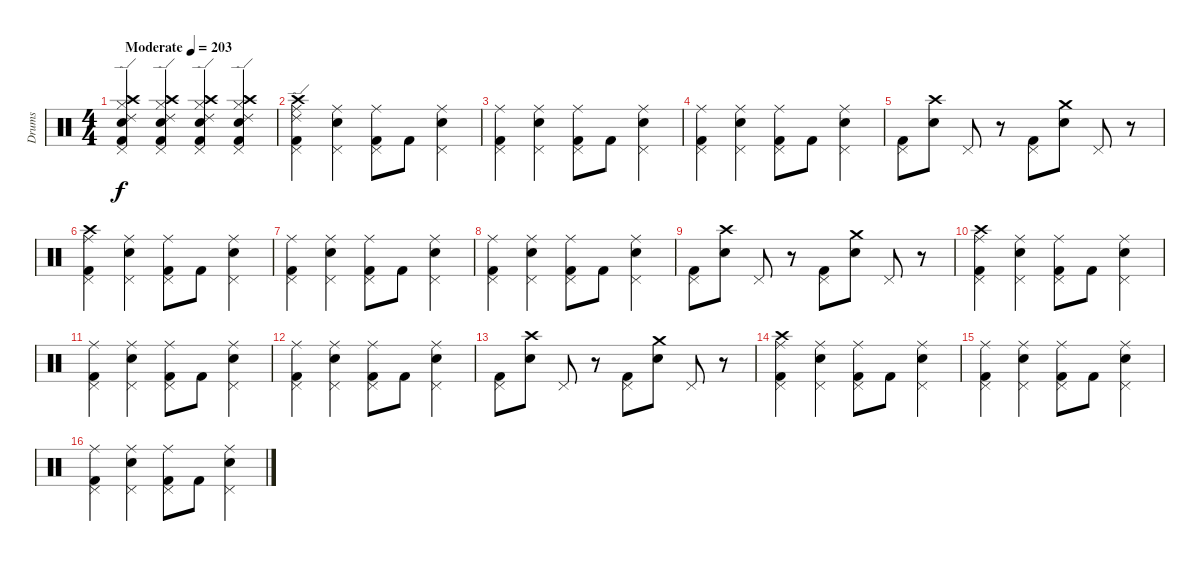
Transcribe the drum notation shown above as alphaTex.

\track ("Drums" "Drums") {instrument percussion}
\staff {score}
\articulation defaults
\ts (4 4)
\tempo (203 "Moderate")
\clef neutral
\ks c
("Kick (hit) 2" "Snare (hit) 2" "Crash high (hit)" "Ride (edge) 2" "Hi-Hat (closed)" "Pedal Hi-Hat (hit)").4{dy f} ("Kick (hit) 2" "Snare (hit) 2" "Crash high (hit)" "Ride (edge) 2" "Hi-Hat (closed)" "Pedal Hi-Hat (hit)").4 ("Kick (hit) 2" "Snare (hit) 2" "Crash high (hit)" "Ride (edge) 2" "Hi-Hat (closed)" "Pedal Hi-Hat (hit)").4 ("Kick (hit) 2" "Snare (hit) 2" "Crash high (hit)" "Ride (edge) 2" "Hi-Hat (closed)" "Pedal Hi-Hat (hit)").4 |
("Ride (edge) 2" "Crash high (hit)" "Pedal Hi-Hat (hit)" "Ride (middle)" "Kick (hit) 2").4 ("Pedal Hi-Hat (hit)" "Ride (middle)" "Snare (hit) 2").4 ("Pedal Hi-Hat (hit)" "Ride (middle)" "Kick (hit) 2").8 "Kick (hit) 2".8 ("Pedal Hi-Hat (hit)" "Ride (middle)" "Snare (hit) 2").4 |
("Pedal Hi-Hat (hit)" "Ride (middle)" "Kick (hit) 2").4 ("Pedal Hi-Hat (hit)" "Ride (middle)" "Snare (hit) 2").4 ("Pedal Hi-Hat (hit)" "Ride (middle)" "Kick (hit) 2").8 "Kick (hit) 2".8 ("Pedal Hi-Hat (hit)" "Ride (middle)" "Snare (hit) 2").4 |
("Pedal Hi-Hat (hit)" "Ride (middle)" "Kick (hit) 2").4 ("Pedal Hi-Hat (hit)" "Ride (middle)" "Snare (hit) 2").4 ("Pedal Hi-Hat (hit)" "Ride (middle)" "Kick (hit) 2").8 "Kick (hit) 2".8 ("Pedal Hi-Hat (hit)" "Ride (middle)" "Snare (hit) 2").4 |
("Pedal Hi-Hat (hit)" "Kick (hit) 2").8 ("Crash high (hit)" "Snare (hit) 2").8 "Pedal Hi-Hat (hit)".8 r.8 ("Pedal Hi-Hat (hit)" "Kick (hit) 2").8 ("Snare (hit) 2" "Crash medium (hit)").8 "Pedal Hi-Hat (hit)".8 r.8 |
("Crash high (hit)" "Ride (middle)" "Pedal Hi-Hat (hit)" "Kick (hit) 2").4 ("Ride (middle)" "Pedal Hi-Hat (hit)" "Snare (hit) 2").4 ("Ride (middle)" "Pedal Hi-Hat (hit)" "Kick (hit) 2").8 "Kick (hit) 2".8 ("Ride (middle)" "Pedal Hi-Hat (hit)" "Snare (hit) 2").4 |
("Ride (middle)" "Pedal Hi-Hat (hit)" "Kick (hit) 2").4 ("Ride (middle)" "Pedal Hi-Hat (hit)" "Snare (hit) 2").4 ("Ride (middle)" "Pedal Hi-Hat (hit)" "Kick (hit) 2").8 "Kick (hit) 2".8 ("Ride (middle)" "Pedal Hi-Hat (hit)" "Snare (hit) 2").4 |
("Ride (middle)" "Pedal Hi-Hat (hit)" "Kick (hit) 2").4 ("Ride (middle)" "Pedal Hi-Hat (hit)" "Snare (hit) 2").4 ("Ride (middle)" "Pedal Hi-Hat (hit)" "Kick (hit) 2").8 "Kick (hit) 2".8 ("Ride (middle)" "Pedal Hi-Hat (hit)" "Snare (hit) 2").4 |
("Pedal Hi-Hat (hit)" "Kick (hit) 2").8 ("Crash high (hit)" "Snare (hit) 2").8 "Pedal Hi-Hat (hit)".8 r.8 ("Pedal Hi-Hat (hit)" "Kick (hit) 2").8 ("Crash medium (hit)" "Snare (hit) 2").8 "Pedal Hi-Hat (hit)".8 r.8 |
("Crash high (hit)" "Ride (middle)" "Pedal Hi-Hat (hit)" "Kick (hit) 2").4 ("Ride (middle)" "Pedal Hi-Hat (hit)" "Snare (hit) 2").4 ("Ride (middle)" "Pedal Hi-Hat (hit)" "Kick (hit) 2").8 "Kick (hit) 2".8 ("Ride (middle)" "Pedal Hi-Hat (hit)" "Snare (hit) 2").4 |
("Ride (middle)" "Pedal Hi-Hat (hit)" "Kick (hit) 2").4 ("Ride (middle)" "Pedal Hi-Hat (hit)" "Snare (hit) 2").4 ("Ride (middle)" "Pedal Hi-Hat (hit)" "Kick (hit) 2").8 "Kick (hit) 2".8 ("Ride (middle)" "Pedal Hi-Hat (hit)" "Snare (hit) 2").4 |
("Ride (middle)" "Pedal Hi-Hat (hit)" "Kick (hit) 2").4 ("Ride (middle)" "Pedal Hi-Hat (hit)" "Snare (hit) 2").4 ("Ride (middle)" "Pedal Hi-Hat (hit)" "Kick (hit) 2").8 "Kick (hit) 2".8 ("Ride (middle)" "Pedal Hi-Hat (hit)" "Snare (hit) 2").4 |
("Pedal Hi-Hat (hit)" "Kick (hit) 2").8 ("Crash high (hit)" "Snare (hit) 2").8 "Pedal Hi-Hat (hit)".8 r.8 ("Pedal Hi-Hat (hit)" "Kick (hit) 2").8 ("Crash medium (hit)" "Snare (hit) 2").8 "Pedal Hi-Hat (hit)".8 r.8 |
("Ride (middle)" "Pedal Hi-Hat (hit)" "Crash high (hit)" "Kick (hit) 2").4 ("Ride (middle)" "Pedal Hi-Hat (hit)" "Snare (hit) 2").4 ("Ride (middle)" "Pedal Hi-Hat (hit)" "Kick (hit) 2").8 "Kick (hit) 2".8 ("Ride (middle)" "Pedal Hi-Hat (hit)" "Snare (hit) 2").4 |
("Ride (middle)" "Pedal Hi-Hat (hit)" "Kick (hit) 2").4 ("Ride (middle)" "Pedal Hi-Hat (hit)" "Snare (hit) 2").4 ("Ride (middle)" "Pedal Hi-Hat (hit)" "Kick (hit) 2").8 "Kick (hit) 2".8 ("Ride (middle)" "Pedal Hi-Hat (hit)" "Snare (hit) 2").4 |
("Ride (middle)" "Pedal Hi-Hat (hit)" "Kick (hit) 2").4 ("Ride (middle)" "Pedal Hi-Hat (hit)" "Snare (hit) 2").4 ("Ride (middle)" "Pedal Hi-Hat (hit)" "Kick (hit) 2").8 "Kick (hit) 2".8 ("Ride (middle)" "Pedal Hi-Hat (hit)" "Snare (hit) 2").4
